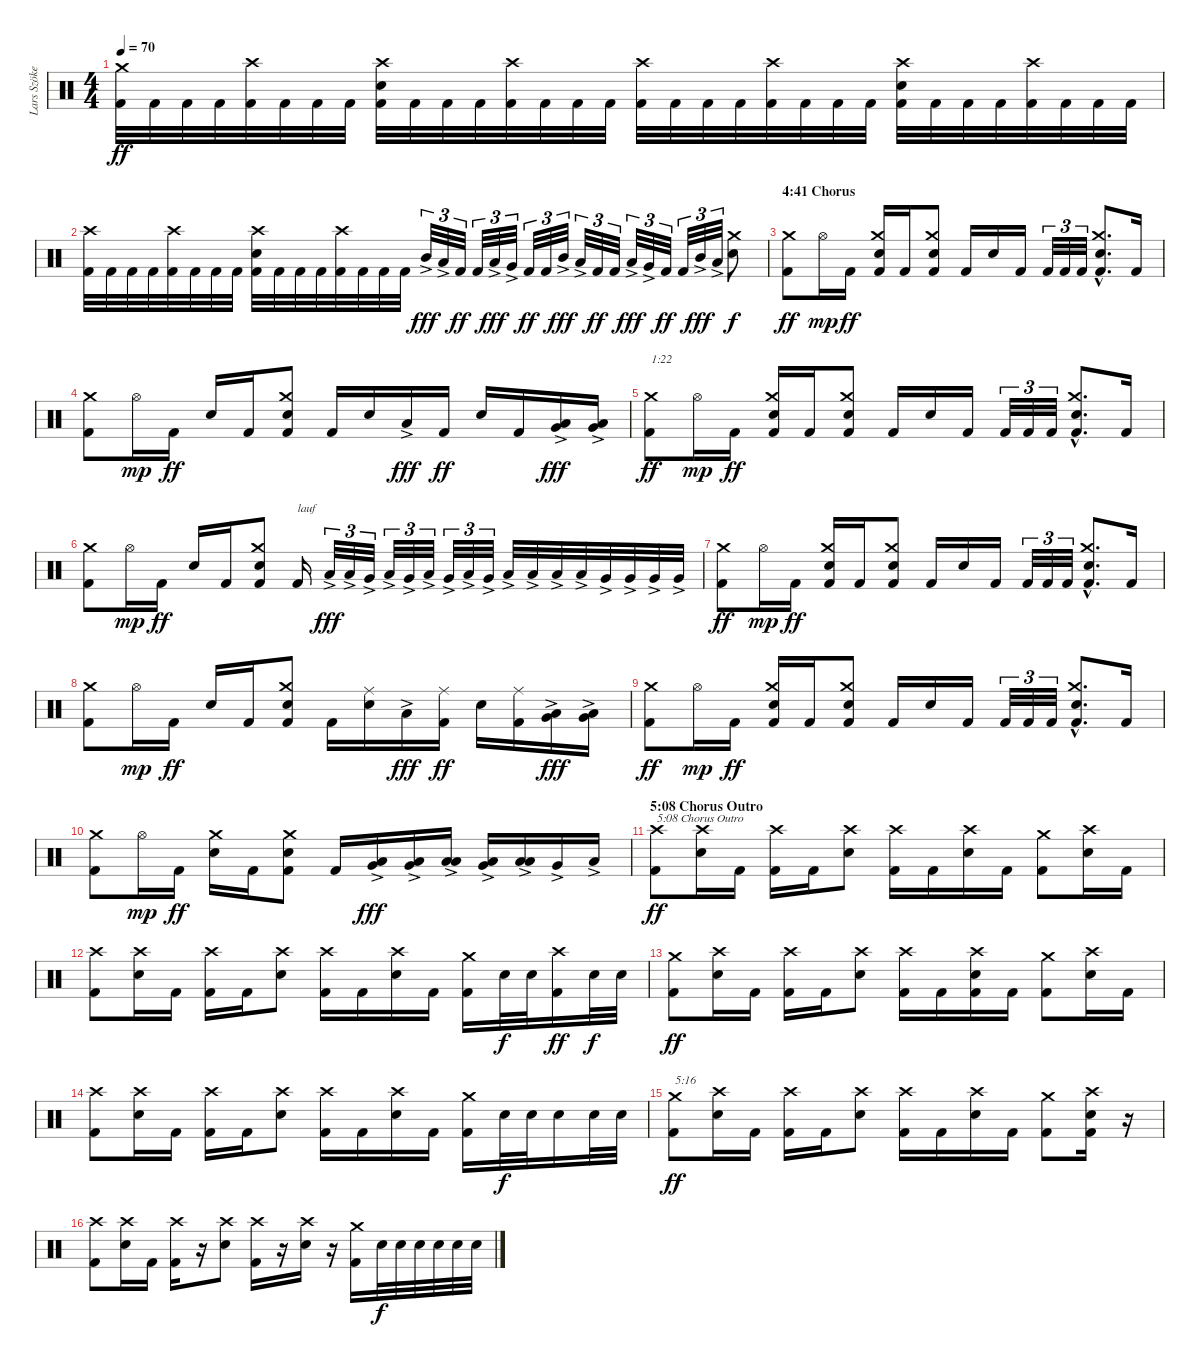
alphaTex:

\track ("Lars Szöke (Drums)" "Lars Szöke") {instrument percussion}
\staff {score}
\articulation defaults
\ts (4 4)
\tempo 70
\clef neutral
\ks c
("Kick (hit) 2" "Crash medium (hit)").32{dy ff} "Kick (hit) 2".32 "Kick (hit) 2".32 "Kick (hit) 2".32 ("Kick (hit) 2" "Crash high (hit)").32 "Kick (hit) 2".32 "Kick (hit) 2".32 "Kick (hit) 2".32 ("Kick (hit) 2" "Electric Snare (hit)" "Crash high (hit)").32 "Kick (hit) 2".32 "Kick (hit) 2".32 "Kick (hit) 2".32 ("Kick (hit) 2" "Crash high (hit)").32 "Kick (hit) 2".32 "Kick (hit) 2".32 "Kick (hit) 2".32 ("Kick (hit) 2" "Crash high (hit)").32 "Kick (hit) 2".32 "Kick (hit) 2".32 "Kick (hit) 2".32 ("Kick (hit) 2" "Crash high (hit)").32 "Kick (hit) 2".32 "Kick (hit) 2".32 "Kick (hit) 2".32 ("Kick (hit) 2" "Electric Snare (hit)" "Crash high (hit)").32 "Kick (hit) 2".32 "Kick (hit) 2".32 "Kick (hit) 2".32 ("Kick (hit) 2" "Crash high (hit)").32 "Kick (hit) 2".32 "Kick (hit) 2".32 "Kick (hit) 2".32 |
("Kick (hit) 2" "Crash high (hit)").32 "Kick (hit) 2".32 "Kick (hit) 2".32 "Kick (hit) 2".32 ("Kick (hit) 2" "Crash high (hit)").32 "Kick (hit) 2".32 "Kick (hit) 2".32 "Kick (hit) 2".32 ("Kick (hit) 2" "Electric Snare (hit)" "Crash high (hit)").32 "Kick (hit) 2".32 "Kick (hit) 2".32 "Kick (hit) 2".32 ("Kick (hit) 2" "Crash high (hit)").32 "Kick (hit) 2".32 "Kick (hit) 2".32 "Kick (hit) 2".32 "Mid Tom (hit)"{ac}.32{tu (3 2) dy fff} "Low Tom (hit)"{ac}.32{tu (3 2)} "Kick (hit) 2".32{tu (3 2) dy ff} "Kick (hit) 2".32{tu (3 2)} "Low Tom (hit)"{ac}.32{tu (3 2) dy fff} "Very Low Tom (hit)"{ac}.32{tu (3 2)} "Kick (hit) 2".32{tu (3 2) dy ff} "Kick (hit) 2".32{tu (3 2)} "Mid Tom (hit)"{ac}.32{tu (3 2) dy fff} "Low Tom (hit)"{ac}.32{tu (3 2)} "Kick (hit) 2".32{tu (3 2) dy ff} "Kick (hit) 2".32{tu (3 2)} "Low Tom (hit)"{ac}.32{tu (3 2) dy fff} "Very Low Tom (hit)"{ac}.32{tu (3 2)} "Kick (hit) 2".32{tu (3 2) dy ff} "Kick (hit) 2".32{tu (3 2)} "Mid Tom (hit)"{ac}.32{tu (3 2) dy fff} "Low Tom (hit)"{ac}.32{tu (3 2)} ("Electric Snare (hit)" "Crash medium (hit)").8{dy f} |
\section ("" "4:41 Chorus")
("Kick (hit) 2" "Crash medium (hit)").8{dy ff} "Hi-Hat (open)".16{dy mp} "Kick (hit) 2".16{dy ff} ("Kick (hit) 2" "Electric Snare (hit)" "Crash medium (hit)").16 "Kick (hit) 2".16 ("Kick (hit) 2" "Electric Snare (hit)" "Crash medium (hit)").8 "Kick (hit) 2".16 "Electric Snare (hit)".16 "Kick (hit) 2".16 "Kick (hit) 2".32{tu (3 2)} "Kick (hit) 2".32{tu (3 2)} "Kick (hit) 2".32{tu (3 2)} ("Kick (hit) 2"{hac} "Electric Snare (hit)"{hac} "Crash medium (hit)"{hac}).8{d} "Kick (hit) 2".16 |
("Kick (hit) 2" "Crash medium (hit)").8 "Hi-Hat (open)".16{dy mp} "Kick (hit) 2".16{dy ff} "Electric Snare (hit)".16 "Kick (hit) 2".16 ("Kick (hit) 2" "Electric Snare (hit)" "Crash medium (hit)").8 "Kick (hit) 2".16 "Electric Snare (hit)".16 "Low Tom (hit)"{ac}.16{dy fff} "Kick (hit) 2".16{dy ff} "Electric Snare (hit)".16 "Kick (hit) 2".16 ("Low Tom (hit)"{ac} "Very Low Tom (hit)"{ac}).16{dy fff} ("Very Low Tom (hit)"{ac} "Low Floor Tom (hit)"{ac}).16 |
("Kick (hit) 2" "Crash medium (hit)").8{txt "1:22" dy ff} "Hi-Hat (open)".16{dy mp} "Kick (hit) 2".16{dy ff} ("Kick (hit) 2" "Electric Snare (hit)" "Crash medium (hit)").16 "Kick (hit) 2".16 ("Kick (hit) 2" "Electric Snare (hit)" "Crash medium (hit)").8 "Kick (hit) 2".16 "Electric Snare (hit)".16 "Kick (hit) 2".16 "Kick (hit) 2".32{tu (3 2)} "Kick (hit) 2".32{tu (3 2)} "Kick (hit) 2".32{tu (3 2)} ("Kick (hit) 2"{hac} "Electric Snare (hit)"{hac} "Crash medium (hit)"{hac}).8{d} "Kick (hit) 2".16 |
("Kick (hit) 2" "Crash medium (hit)").8 "Hi-Hat (open)".16{dy mp} "Kick (hit) 2".16{dy ff} "Electric Snare (hit)".16 "Kick (hit) 2".16 ("Kick (hit) 2" "Electric Snare (hit)" "Crash medium (hit)").8 "Kick (hit) 2".16{txt "lauf"} "Low Tom (hit)"{ac}.32{tu (3 2) dy fff} "Low Tom (hit)"{ac}.32{tu (3 2)} "Very Low Tom (hit)"{ac}.32{tu (3 2)} "Low Tom (hit)"{ac}.32{tu (3 2)} "Very Low Tom (hit)"{ac}.32{tu (3 2)} "Low Floor Tom (hit)"{ac}.32{tu (3 2)} "Very Low Tom (hit)"{ac}.32{tu (3 2)} "Low Floor Tom (hit)"{ac}.32{tu (3 2)} "Very Low Tom (hit)"{ac}.32{tu (3 2)} "Low Tom (hit)"{ac}.32 "Low Tom (hit)"{ac}.32 "Low Tom (hit)"{ac}.32 "Low Tom (hit)"{ac}.32 "Very Low Tom (hit)"{ac}.32 "Very Low Tom (hit)"{ac}.32 "Very Low Tom (hit)"{ac}.32 "Very Low Tom (hit)"{ac}.32 |
("Kick (hit) 2" "Crash medium (hit)").8{dy ff} "Hi-Hat (open)".16{dy mp} "Kick (hit) 2".16{dy ff} ("Kick (hit) 2" "Electric Snare (hit)" "Crash medium (hit)").16 "Kick (hit) 2".16 ("Kick (hit) 2" "Electric Snare (hit)" "Crash medium (hit)").8 "Kick (hit) 2".16 "Electric Snare (hit)".16 "Kick (hit) 2".16 "Kick (hit) 2".32{tu (3 2)} "Kick (hit) 2".32{tu (3 2)} "Kick (hit) 2".32{tu (3 2)} ("Kick (hit) 2"{hac} "Electric Snare (hit)"{hac} "Crash medium (hit)"{hac}).8{d} "Kick (hit) 2".16 |
("Kick (hit) 2" "Crash medium (hit)").8 "Hi-Hat (open)".16{dy mp} "Kick (hit) 2".16{dy ff} "Electric Snare (hit)".16 "Kick (hit) 2".16 ("Kick (hit) 2" "Electric Snare (hit)" "Crash medium (hit)").8 "Kick (hit) 2".16 ("Electric Snare (hit)" "Ride (middle)").16 "Low Tom (hit)"{ac}.16{dy fff} ("Kick (hit) 2" "Ride (middle)").16{dy ff} "Electric Snare (hit)".16 ("Kick (hit) 2" "Ride (middle)").16 ("Low Tom (hit)"{ac} "Very Low Tom (hit)"{ac}).16{dy fff} ("Very Low Tom (hit)"{ac} "Low Floor Tom (hit)"{ac}).16 |
("Kick (hit) 2" "Crash medium (hit)").8{dy ff} "Hi-Hat (open)".16{dy mp} "Kick (hit) 2".16{dy ff} ("Kick (hit) 2" "Electric Snare (hit)" "Crash medium (hit)").16 "Kick (hit) 2".16 ("Kick (hit) 2" "Electric Snare (hit)" "Crash medium (hit)").8 "Kick (hit) 2".16 "Electric Snare (hit)".16 "Kick (hit) 2".16 "Kick (hit) 2".32{tu (3 2)} "Kick (hit) 2".32{tu (3 2)} "Kick (hit) 2".32{tu (3 2)} ("Kick (hit) 2"{hac} "Electric Snare (hit)"{hac} "Crash medium (hit)"{hac}).8{d} "Kick (hit) 2".16 |
("Kick (hit) 2" "Crash medium (hit)").8 "Hi-Hat (open)".16{dy mp} "Kick (hit) 2".16{dy ff} ("Electric Snare (hit)" "Crash medium (hit)").16 "Kick (hit) 2".16 ("Kick (hit) 2" "Electric Snare (hit)" "Crash medium (hit)").8 "Kick (hit) 2".16 ("Low Tom (hit)"{ac} "Very Low Tom (hit)"{ac}).16{dy fff} ("Low Tom (hit)"{ac} "Very Low Tom (hit)"{ac}).16 ("Low Tom (hit)"{ac} "Low Floor Tom (hit)"{ac}).16 ("Low Tom (hit)"{ac} "Very Low Tom (hit)"{ac}).16 ("Low Tom (hit)"{ac} "Low Floor Tom (hit)"{ac}).16 "Very Low Tom (hit)"{ac}.16 "Low Floor Tom (hit)"{ac}.16 |
\section ("" "5:08 Chorus Outro")
("Kick (hit) 2" "Crash high (hit)").8{txt "5:08 Chorus Outro" dy ff} ("Electric Snare (hit)" "Crash high (hit)").16 "Kick (hit) 2".16 ("Kick (hit) 2" "Crash high (hit)").16 "Kick (hit) 2".16 ("Electric Snare (hit)" "Crash high (hit)").8 ("Kick (hit) 2" "Crash high (hit)").16 "Kick (hit) 2".16 ("Electric Snare (hit)" "Crash high (hit)").16 "Kick (hit) 2".16 ("Kick (hit) 2" "Crash medium (hit)").8 ("Electric Snare (hit)" "Crash high (hit)").16 "Kick (hit) 2".16 |
("Kick (hit) 2" "Crash high (hit)").8 ("Electric Snare (hit)" "Crash high (hit)").16 "Kick (hit) 2".16 ("Kick (hit) 2" "Crash high (hit)").16 "Kick (hit) 2".16 ("Electric Snare (hit)" "Crash high (hit)").8 ("Kick (hit) 2" "Crash high (hit)").16 "Kick (hit) 2".16 ("Electric Snare (hit)" "Crash high (hit)").16 "Kick (hit) 2".16 ("Kick (hit) 2" "Crash medium (hit)").16 "Electric Snare (hit)".32{dy f} "Electric Snare (hit)".32 ("Kick (hit) 2" "Crash high (hit)").16{dy ff} "Electric Snare (hit)".32{dy f} "Electric Snare (hit)".32 |
("Kick (hit) 2" "Crash medium (hit)").8{dy ff} ("Electric Snare (hit)" "Crash high (hit)").16 "Kick (hit) 2".16 ("Kick (hit) 2" "Crash high (hit)").16 "Kick (hit) 2".16 ("Electric Snare (hit)" "Crash high (hit)").8 ("Kick (hit) 2" "Crash high (hit)").16 "Kick (hit) 2".16 ("Kick (hit) 2" "Electric Snare (hit)" "Crash high (hit)").16 "Kick (hit) 2".16 ("Kick (hit) 2" "Crash medium (hit)").8 ("Electric Snare (hit)" "Crash high (hit)").16 "Kick (hit) 2".16 |
("Kick (hit) 2" "Crash high (hit)").8 ("Electric Snare (hit)" "Crash high (hit)").16 "Kick (hit) 2".16 ("Kick (hit) 2" "Crash high (hit)").16 "Kick (hit) 2".16 ("Electric Snare (hit)" "Crash high (hit)").8 ("Kick (hit) 2" "Crash high (hit)").16 "Kick (hit) 2".16 ("Electric Snare (hit)" "Crash high (hit)").16 "Kick (hit) 2".16 ("Kick (hit) 2" "Crash medium (hit)").16 "Electric Snare (hit)".32{dy f} "Electric Snare (hit)".32 "Electric Snare (hit)".16 "Electric Snare (hit)".32 "Electric Snare (hit)".32 |
("Kick (hit) 2" "Crash medium (hit)").8{txt "5:16" dy ff} ("Electric Snare (hit)" "Crash high (hit)").16 "Kick (hit) 2".16 ("Kick (hit) 2" "Crash high (hit)").16 "Kick (hit) 2".16 ("Electric Snare (hit)" "Crash high (hit)").8 ("Kick (hit) 2" "Crash high (hit)").16 "Kick (hit) 2".16 ("Electric Snare (hit)" "Crash high (hit)").16 "Kick (hit) 2".16 ("Kick (hit) 2" "Crash medium (hit)").8 ("Kick (hit) 2" "Electric Snare (hit)" "Crash high (hit)").16 r.16 |
("Kick (hit) 2" "Crash high (hit)").8 ("Electric Snare (hit)" "Crash high (hit)").16 "Kick (hit) 2".16 ("Kick (hit) 2" "Crash high (hit)").16 r.16 ("Electric Snare (hit)" "Crash high (hit)").8 ("Kick (hit) 2" "Crash high (hit)").16 r.16 ("Electric Snare (hit)" "Crash high (hit)").16 r.16 ("Kick (hit) 2" "Crash medium (hit)").16 "Electric Snare (hit)".32{dy f} "Electric Snare (hit)".32 "Electric Snare (hit)".32 "Electric Snare (hit)".32 "Electric Snare (hit)".32 "Electric Snare (hit)".32
